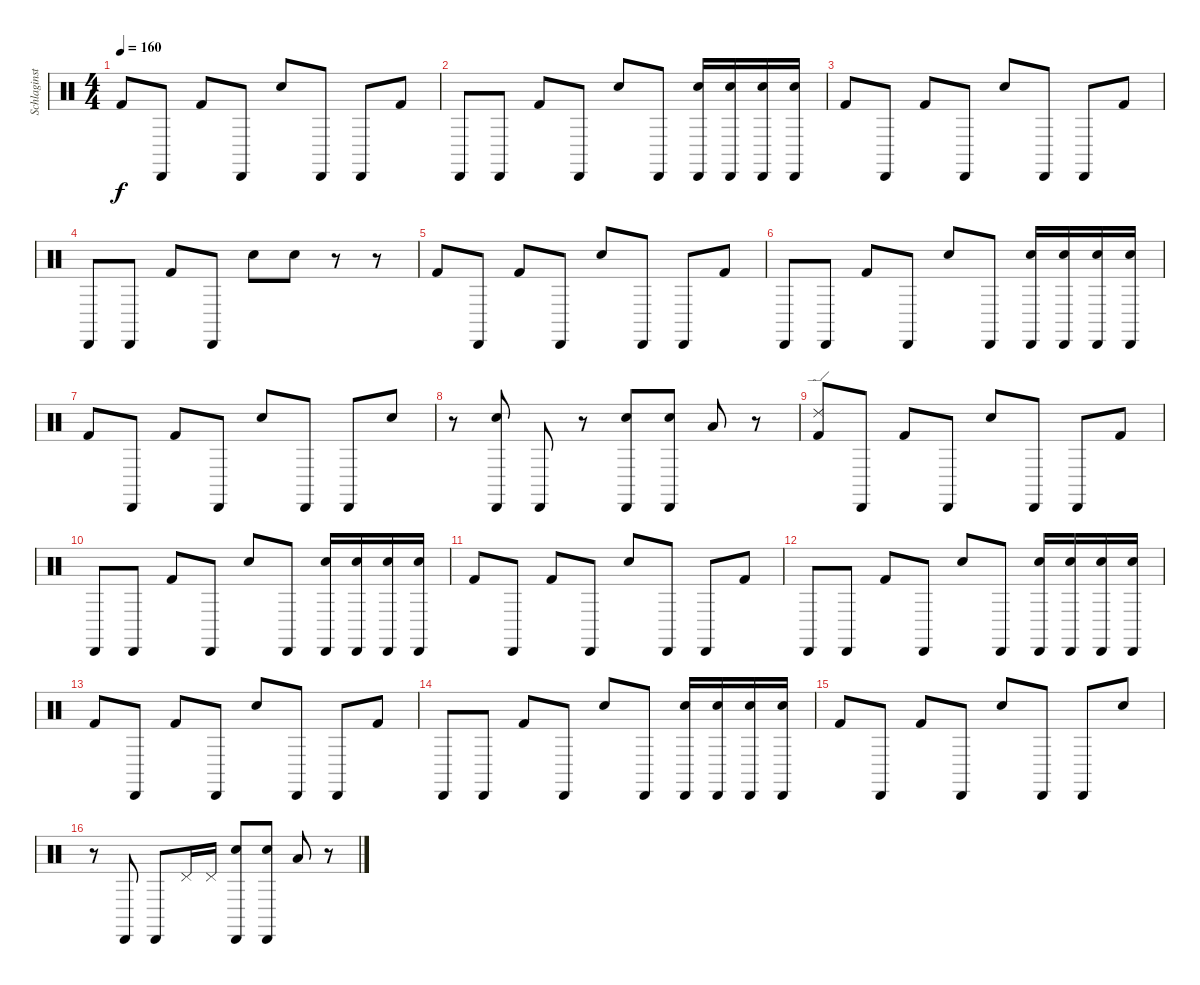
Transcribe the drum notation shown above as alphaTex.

\track ("Schlaginstrumente - Auswahl" "Schlaginst") {instrument percussion}
\staff {score}
\articulation defaults
\ts (4 4)
\tempo 160
\clef neutral
\ks c "Kick (hit) 2".8{dy f} "Cabasa (hit)".8 "Kick (hit) 2".8 "Cabasa (hit)".8 "Snare (hit) 2".8 "Cabasa (hit)".8 "Cabasa (hit)".8 "Kick (hit) 2".8
|
"Cabasa (hit)".8 "Cabasa (hit)".8 "Kick (hit) 2".8 "Cabasa (hit)".8 "Snare (hit) 2".8 "Cabasa (hit)".8 ("Cabasa (hit)" "Snare (hit) 2").16 ("Cabasa (hit)" "Snare (hit) 2").16 ("Cabasa (hit)" "Snare (hit) 2").16 ("Cabasa (hit)" "Snare (hit) 2").16 |
"Kick (hit) 2".8 "Cabasa (hit)".8 "Kick (hit) 2".8 "Cabasa (hit)".8 "Snare (hit) 2".8 "Cabasa (hit)".8 "Cabasa (hit)".8 "Kick (hit) 2".8 |
"Cabasa (hit)".8 "Cabasa (hit)".8 "Kick (hit) 2".8 "Cabasa (hit)".8 "Snare (hit) 2".8 "Snare (hit) 2".8 r.8 r.8 |
"Kick (hit) 2".8 "Cabasa (hit)".8 "Kick (hit) 2".8 "Cabasa (hit)".8 "Snare (hit) 2".8 "Cabasa (hit)".8 "Cabasa (hit)".8 "Kick (hit) 2".8 |
"Cabasa (hit)".8 "Cabasa (hit)".8 "Kick (hit) 2".8 "Cabasa (hit)".8 "Snare (hit) 2".8 "Cabasa (hit)".8 ("Cabasa (hit)" "Snare (hit) 2").16 ("Cabasa (hit)" "Snare (hit) 2").16 ("Cabasa (hit)" "Snare (hit) 2").16 ("Cabasa (hit)" "Snare (hit) 2").16 |
"Kick (hit) 2".8 "Cabasa (hit)".8 "Kick (hit) 2".8 "Cabasa (hit)".8 "Snare (hit) 2".8 "Cabasa (hit)".8 "Cabasa (hit)".8 "Snare (hit) 2".8 |
r.8 ("Cabasa (hit)" "Snare (hit) 2").8 "Cabasa (hit)".8 r.8 ("Cabasa (hit)" "Snare (hit) 2").8 ("Cabasa (hit)" "Snare (hit) 2").8 "Low Tom (hit)".8 r.8 |
("Ride (edge) 2" "Kick (hit) 2").8 "Cabasa (hit)".8 "Kick (hit) 2".8 "Cabasa (hit)".8 "Snare (hit) 2".8 "Cabasa (hit)".8 "Cabasa (hit)".8 "Kick (hit) 2".8 |
"Cabasa (hit)".8 "Cabasa (hit)".8 "Kick (hit) 2".8 "Cabasa (hit)".8 "Snare (hit) 2".8 "Cabasa (hit)".8 ("Cabasa (hit)" "Snare (hit) 2").16 ("Cabasa (hit)" "Snare (hit) 2").16 ("Cabasa (hit)" "Snare (hit) 2").16 ("Cabasa (hit)" "Snare (hit) 2").16 |
"Kick (hit) 2".8 "Cabasa (hit)".8 "Kick (hit) 2".8 "Cabasa (hit)".8 "Snare (hit) 2".8 "Cabasa (hit)".8 "Cabasa (hit)".8 "Kick (hit) 2".8 |
"Cabasa (hit)".8 "Cabasa (hit)".8 "Kick (hit) 2".8 "Cabasa (hit)".8 "Snare (hit) 2".8 "Cabasa (hit)".8 ("Cabasa (hit)" "Snare (hit) 2").16 ("Cabasa (hit)" "Snare (hit) 2").16 ("Cabasa (hit)" "Snare (hit) 2").16 ("Cabasa (hit)" "Snare (hit) 2").16 |
"Kick (hit) 2".8 "Cabasa (hit)".8 "Kick (hit) 2".8 "Cabasa (hit)".8 "Snare (hit) 2".8 "Cabasa (hit)".8 "Cabasa (hit)".8 "Kick (hit) 2".8 |
"Cabasa (hit)".8 "Cabasa (hit)".8 "Kick (hit) 2".8 "Cabasa (hit)".8 "Snare (hit) 2".8 "Cabasa (hit)".8 ("Cabasa (hit)" "Snare (hit) 2").16 ("Cabasa (hit)" "Snare (hit) 2").16 ("Cabasa (hit)" "Snare (hit) 2").16 ("Cabasa (hit)" "Snare (hit) 2").16 |
"Kick (hit) 2".8 "Cabasa (hit)".8 "Kick (hit) 2".8 "Cabasa (hit)".8 "Snare (hit) 2".8 "Cabasa (hit)".8 "Cabasa (hit)".8 "Snare (hit) 2".8 |
r.8 "Cabasa (hit)".8 "Cabasa (hit)".8 "Pedal Hi-Hat (hit)".16 "Pedal Hi-Hat (hit)".16 ("Cabasa (hit)" "Snare (hit) 2").8 ("Cabasa (hit)" "Snare (hit) 2").8 "Low Tom (hit)".8 r.8
